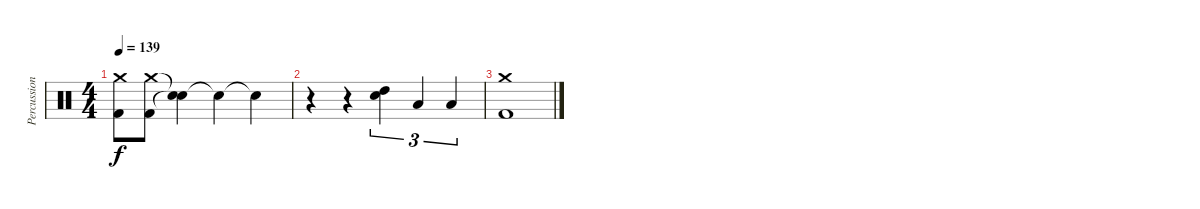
\track ("Percussion" "Percussion") {instrument percussion}
\staff {score}
\articulation defaults
\ts (4 4)
\tempo 139
\clef neutral
\ks c
("Crash medium (hit)" "Kick (hit) 2").8{dy f} ("Crash medium (hit)" "Kick (hit) 2").8 ("Snare (hit)"{t} "Snare (hit)"{t}).4 "Snare (hit)"{t}.4 "Snare (hit)"{t}.4 |
r.4 r.4 ("High Tom (hit)" "Snare (hit) 2").4{tu (3 2)} "Low Tom (hit)".4{tu (3 2)} "Low Floor Tom (hit)".4{tu (3 2)} |
("Crash medium (hit)" "Kick (hit) 2").1
